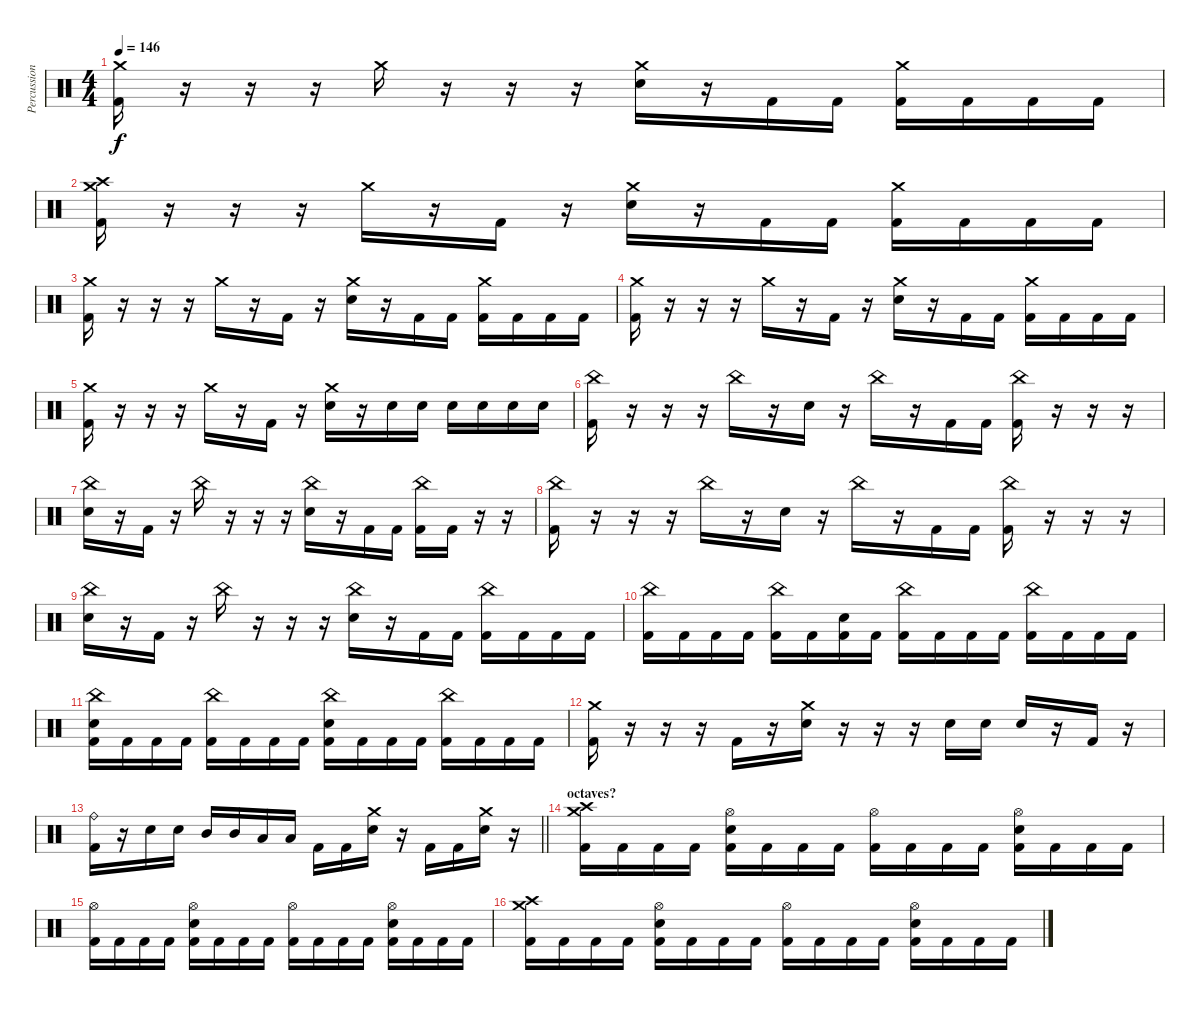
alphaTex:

\track ("Percussion" "Percussion") {instrument percussion}
\staff {score}
\articulation defaults
\ts (4 4)
\tempo 146
\clef neutral
\ks c
("Crash medium (hit)" "Kick (hit) 2").16{dy f} r.16 r.16 r.16 "Crash medium (hit)".16 r.16 r.16 r.16 ("Crash medium (hit)" "Snare (hit) 2").16 r.16 "Kick (hit) 2".16 "Kick (hit) 2".16 ("Crash medium (hit)" "Kick (hit) 2").16 "Kick (hit) 2".16 "Kick (hit) 2".16 "Kick (hit) 2".16 |
("Crash high (hit)" "Crash medium (hit)" "Kick (hit) 2").16 r.16 r.16 r.16 "Crash medium (hit)".16 r.16 "Kick (hit) 2".16 r.16 ("Crash medium (hit)" "Snare (hit) 2").16 r.16 "Kick (hit) 2".16 "Kick (hit) 2".16 ("Crash medium (hit)" "Kick (hit) 2").16 "Kick (hit) 2".16 "Kick (hit) 2".16 "Kick (hit) 2".16 |
("Crash medium (hit)" "Kick (hit) 2").16 r.16 r.16 r.16 "Crash medium (hit)".16 r.16 "Kick (hit) 2".16 r.16 ("Crash medium (hit)" "Snare (hit) 2").16 r.16 "Kick (hit) 2".16 "Kick (hit) 2".16 ("Crash medium (hit)" "Kick (hit) 2").16 "Kick (hit) 2".16 "Kick (hit) 2".16 "Kick (hit) 2".16 |
("Crash medium (hit)" "Kick (hit) 2").16 r.16 r.16 r.16 "Crash medium (hit)".16 r.16 "Kick (hit) 2".16 r.16 ("Crash medium (hit)" "Snare (hit) 2").16 r.16 "Kick (hit) 2".16 "Kick (hit) 2".16 ("Crash medium (hit)" "Kick (hit) 2").16 "Kick (hit) 2".16 "Kick (hit) 2".16 "Kick (hit) 2".16 |
("Crash medium (hit)" "Kick (hit) 2").16 r.16 r.16 r.16 "Crash medium (hit)".16 r.16 "Kick (hit) 2".16 r.16 ("Crash medium (hit)" "Snare (hit) 2").16 r.16 "Snare (hit) 2".16 "Snare (hit) 2".16 "Snare (hit) 2".16 "Snare (hit) 2".16 "Snare (hit) 2".16 "Snare (hit) 2".16 |
("China (hit)" "Kick (hit) 2").16 r.16 r.16 r.16 "China (hit)".16 r.16 "Snare (hit) 2".16 r.16 "China (hit)".16 r.16 "Kick (hit) 2".16 "Kick (hit) 2".16 ("China (hit)" "Kick (hit) 2").16 r.16 r.16 r.16 |
("China (hit)" "Snare (hit) 2").16 r.16 "Kick (hit) 2".16 r.16 "China (hit)".16 r.16 r.16 r.16 ("China (hit)" "Snare (hit) 2").16 r.16 "Kick (hit) 2".16 "Kick (hit) 2".16 ("China (hit)" "Kick (hit) 2").16 "Kick (hit) 2".16 r.16 r.16 |
("China (hit)" "Kick (hit) 2").16 r.16 r.16 r.16 "China (hit)".16 r.16 "Snare (hit) 2".16 r.16 "China (hit)".16 r.16 "Kick (hit) 2".16 "Kick (hit) 2".16 ("China (hit)" "Kick (hit) 2").16 r.16 r.16 r.16 |
("China (hit)" "Snare (hit) 2").16 r.16 "Kick (hit) 2".16 r.16 "China (hit)".16 r.16 r.16 r.16 ("China (hit)" "Snare (hit) 2").16 r.16 "Kick (hit) 2".16 "Kick (hit) 2".16 ("China (hit)" "Kick (hit) 2").16 "Kick (hit) 2".16 "Kick (hit) 2".16 "Kick (hit) 2".16 |
("China (hit)" "Kick (hit) 2").16 "Kick (hit) 2".16 "Kick (hit) 2".16 "Kick (hit) 2".16 ("China (hit)" "Kick (hit) 2").16 "Kick (hit) 2".16 ("Snare (hit) 2" "Kick (hit) 2").16 "Kick (hit) 2".16 ("China (hit)" "Kick (hit) 2").16 "Kick (hit) 2".16 "Kick (hit) 2".16 "Kick (hit) 2".16 ("China (hit)" "Kick (hit) 2").16 "Kick (hit) 2".16 "Kick (hit) 2".16 "Kick (hit) 2".16 |
("China (hit)" "Snare (hit) 2" "Kick (hit) 2").16 "Kick (hit) 2".16 "Kick (hit) 2".16 "Kick (hit) 2".16 ("China (hit)" "Kick (hit) 2").16 "Kick (hit) 2".16 "Kick (hit) 2".16 "Kick (hit) 2".16 ("China (hit)" "Snare (hit) 2" "Kick (hit) 2").16 "Kick (hit) 2".16 "Kick (hit) 2".16 "Kick (hit) 2".16 ("China (hit)" "Kick (hit) 2").16 "Kick (hit) 2".16 "Kick (hit) 2".16 "Kick (hit) 2".16 |
("Crash medium (hit)" "Kick (hit) 2").16 r.16 r.16 r.16 "Kick (hit) 2".16 r.16 ("Crash medium (hit)" "Snare (hit) 2").16 r.16 r.16 r.16 "Snare (hit) 2".16 "Snare (hit) 2".16 "Snare (hit) 2".16 r.16 "Kick (hit) 2".16 r.16 |
\barLineRight lightlight
("Ride (bell)" "Kick (hit) 2").16 r.16 "Snare (hit) 2".16 "Snare (hit) 2".16 "Mid Tom (hit)".16 "Mid Tom (hit)".16 "Low Tom (hit)".16 "Low Tom (hit)".16 "Kick (hit) 2".16 "Kick (hit) 2".16 ("Crash medium (hit)" "Snare (hit) 2").16 r.16 "Kick (hit) 2".16 "Kick (hit) 2".16 ("Crash medium (hit)" "Snare (hit) 2").16 r.16 |
\section ("" "octaves?")
("Crash high (hit)" "Crash medium (hit)" "Kick (hit) 2").16 "Kick (hit) 2".16 "Kick (hit) 2".16 "Kick (hit) 2".16 ("Hi-Hat (open)" "Snare (hit) 2" "Kick (hit) 2").16 "Kick (hit) 2".16 "Kick (hit) 2".16 "Kick (hit) 2".16 ("Hi-Hat (open)" "Kick (hit) 2").16 "Kick (hit) 2".16 "Kick (hit) 2".16 "Kick (hit) 2".16 ("Hi-Hat (open)" "Snare (hit) 2" "Kick (hit) 2").16 "Kick (hit) 2".16 "Kick (hit) 2".16 "Kick (hit) 2".16 |
("Hi-Hat (open)" "Kick (hit) 2").16 "Kick (hit) 2".16 "Kick (hit) 2".16 "Kick (hit) 2".16 ("Hi-Hat (open)" "Snare (hit) 2" "Kick (hit) 2").16 "Kick (hit) 2".16 "Kick (hit) 2".16 "Kick (hit) 2".16 ("Hi-Hat (open)" "Kick (hit) 2").16 "Kick (hit) 2".16 "Kick (hit) 2".16 "Kick (hit) 2".16 ("Hi-Hat (open)" "Snare (hit) 2" "Kick (hit) 2").16 "Kick (hit) 2".16 "Kick (hit) 2".16 "Kick (hit) 2".16 |
("Crash high (hit)" "Crash medium (hit)" "Kick (hit) 2").16 "Kick (hit) 2".16 "Kick (hit) 2".16 "Kick (hit) 2".16 ("Hi-Hat (open)" "Snare (hit) 2" "Kick (hit) 2").16 "Kick (hit) 2".16 "Kick (hit) 2".16 "Kick (hit) 2".16 ("Hi-Hat (open)" "Kick (hit) 2").16 "Kick (hit) 2".16 "Kick (hit) 2".16 "Kick (hit) 2".16 ("Hi-Hat (open)" "Snare (hit) 2" "Kick (hit) 2").16 "Kick (hit) 2".16 "Kick (hit) 2".16 "Kick (hit) 2".16
